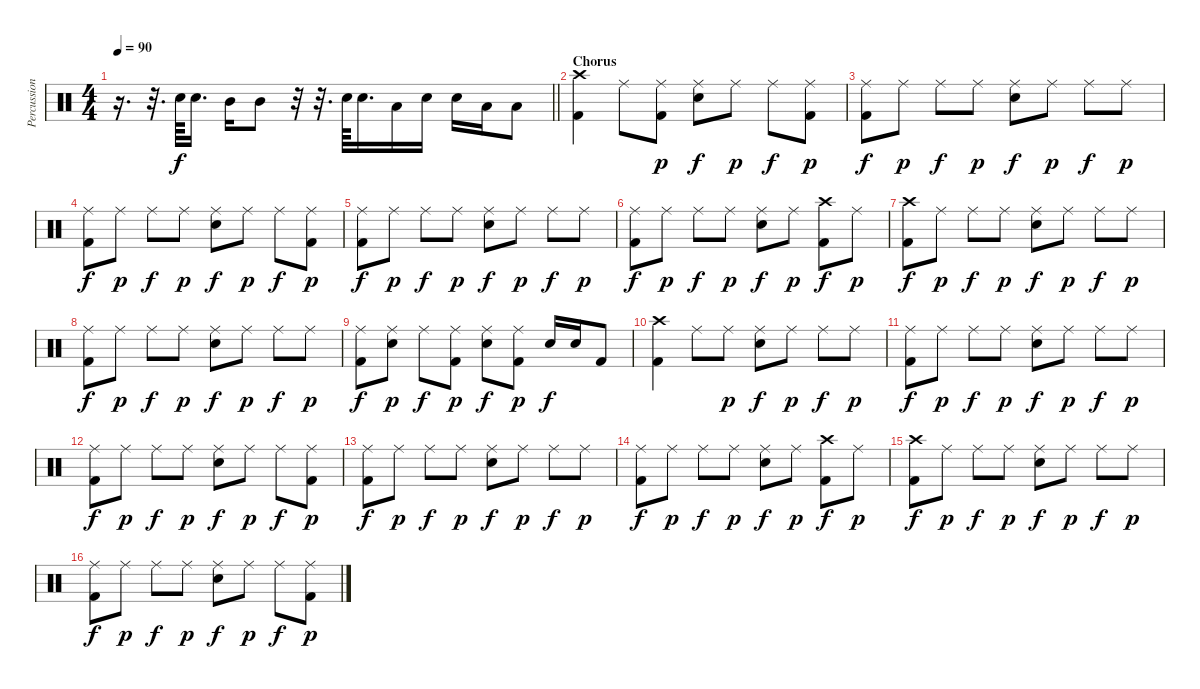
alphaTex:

\track ("Percussion" "Percussion") {instrument percussion}
\staff {score}
\articulation defaults
\ts (4 4)
\tempo 90
\clef neutral
\barLineRight lightlight
\ks c
r.16{d dy f} r.32{d} "Electric Snare (hit)".64 "Electric Snare (hit)".16{d} "Mid Tom (hit)".16 "Mid Tom (hit)".8 r.32 r.32{d} "Electric Snare (hit)".64 "Electric Snare (hit)".16{d} "Low Tom (hit)".16 "Electric Snare (hit)".16 "Electric Snare (hit)".16 "Low Tom (hit)".16 "Low Tom (hit)".8 |
\section ("" "Chorus")
("Crash high (hit)" "Kick (hit) 2").4 "Ride (middle)".8 ("Ride (middle)" "Kick (hit) 2").8{dy p} ("Ride (middle)" "Electric Snare (hit)").8{dy f} "Ride (middle)".8{dy p} "Ride (middle)".8{dy f} ("Ride (middle)" "Kick (hit) 2").8{dy p} |
("Ride (middle)" "Kick (hit) 2").8{dy f} "Ride (middle)".8{dy p} "Ride (middle)".8{dy f} "Ride (middle)".8{dy p} ("Ride (middle)" "Electric Snare (hit)").8{dy f} "Ride (middle)".8{dy p} "Ride (middle)".8{dy f} "Ride (middle)".8{dy p} |
("Ride (middle)" "Kick (hit) 2").8{dy f} "Ride (middle)".8{dy p} "Ride (middle)".8{dy f} "Ride (middle)".8{dy p} ("Ride (middle)" "Electric Snare (hit)").8{dy f} "Ride (middle)".8{dy p} "Ride (middle)".8{dy f} ("Ride (middle)" "Kick (hit) 2").8{dy p} |
("Ride (middle)" "Kick (hit) 2").8{dy f} "Ride (middle)".8{dy p} "Ride (middle)".8{dy f} "Ride (middle)".8{dy p} ("Ride (middle)" "Electric Snare (hit)").8{dy f} "Ride (middle)".8{dy p} "Ride (middle)".8{dy f} "Ride (middle)".8{dy p} |
("Ride (middle)" "Kick (hit) 2").8{dy f} "Ride (middle)".8{dy p} "Ride (middle)".8{dy f} "Ride (middle)".8{dy p} ("Ride (middle)" "Electric Snare (hit)").8{dy f} "Ride (middle)".8{dy p} ("Crash high (hit)" "Kick (hit) 2").8{dy f} "Ride (middle)".8{dy p} |
("Crash high (hit)" "Kick (hit) 2").8{dy f} "Ride (middle)".8{dy p} "Ride (middle)".8{dy f} "Ride (middle)".8{dy p} ("Ride (middle)" "Electric Snare (hit)").8{dy f} "Ride (middle)".8{dy p} "Ride (middle)".8{dy f} "Ride (middle)".8{dy p} |
("Ride (middle)" "Kick (hit) 2").8{dy f} "Ride (middle)".8{dy p} "Ride (middle)".8{dy f} "Ride (middle)".8{dy p} ("Ride (middle)" "Electric Snare (hit)").8{dy f} "Ride (middle)".8{dy p} "Ride (middle)".8{dy f} "Ride (middle)".8{dy p} |
("Ride (middle)" "Kick (hit) 2").8{dy f} ("Ride (middle)" "Electric Snare (hit)").8{dy p} "Ride (middle)".8{dy f} ("Ride (middle)" "Kick (hit) 2").8{dy p} ("Ride (middle)" "Electric Snare (hit)").8{dy f} ("Ride (middle)" "Kick (hit) 2").8{dy p} "Electric Snare (hit)".16{dy f} "Electric Snare (hit)".16 "Kick (hit) 2".8 |
("Crash high (hit)" "Kick (hit) 2").4 "Ride (middle)".8 "Ride (middle)".8{dy p} ("Ride (middle)" "Electric Snare (hit)").8{dy f} "Ride (middle)".8{dy p} "Ride (middle)".8{dy f} "Ride (middle)".8{dy p} |
("Ride (middle)" "Kick (hit) 2").8{dy f} "Ride (middle)".8{dy p} "Ride (middle)".8{dy f} "Ride (middle)".8{dy p} ("Ride (middle)" "Electric Snare (hit)").8{dy f} "Ride (middle)".8{dy p} "Ride (middle)".8{dy f} "Ride (middle)".8{dy p} |
("Ride (middle)" "Kick (hit) 2").8{dy f} "Ride (middle)".8{dy p} "Ride (middle)".8{dy f} "Ride (middle)".8{dy p} ("Ride (middle)" "Electric Snare (hit)").8{dy f} "Ride (middle)".8{dy p} "Ride (middle)".8{dy f} ("Ride (middle)" "Kick (hit) 2").8{dy p} |
("Ride (middle)" "Kick (hit) 2").8{dy f} "Ride (middle)".8{dy p} "Ride (middle)".8{dy f} "Ride (middle)".8{dy p} ("Ride (middle)" "Electric Snare (hit)").8{dy f} "Ride (middle)".8{dy p} "Ride (middle)".8{dy f} "Ride (middle)".8{dy p} |
("Ride (middle)" "Kick (hit) 2").8{dy f} "Ride (middle)".8{dy p} "Ride (middle)".8{dy f} "Ride (middle)".8{dy p} ("Ride (middle)" "Electric Snare (hit)").8{dy f} "Ride (middle)".8{dy p} ("Crash high (hit)" "Kick (hit) 2").8{dy f} "Ride (middle)".8{dy p} |
("Crash high (hit)" "Kick (hit) 2").8{dy f} "Ride (middle)".8{dy p} "Ride (middle)".8{dy f} "Ride (middle)".8{dy p} ("Ride (middle)" "Electric Snare (hit)").8{dy f} "Ride (middle)".8{dy p} "Ride (middle)".8{dy f} "Ride (middle)".8{dy p} |
("Ride (middle)" "Kick (hit) 2").8{dy f} "Ride (middle)".8{dy p} "Ride (middle)".8{dy f} "Ride (middle)".8{dy p} ("Ride (middle)" "Electric Snare (hit)").8{dy f} "Ride (middle)".8{dy p} "Ride (middle)".8{dy f} ("Ride (middle)" "Kick (hit) 2").8{dy p}
